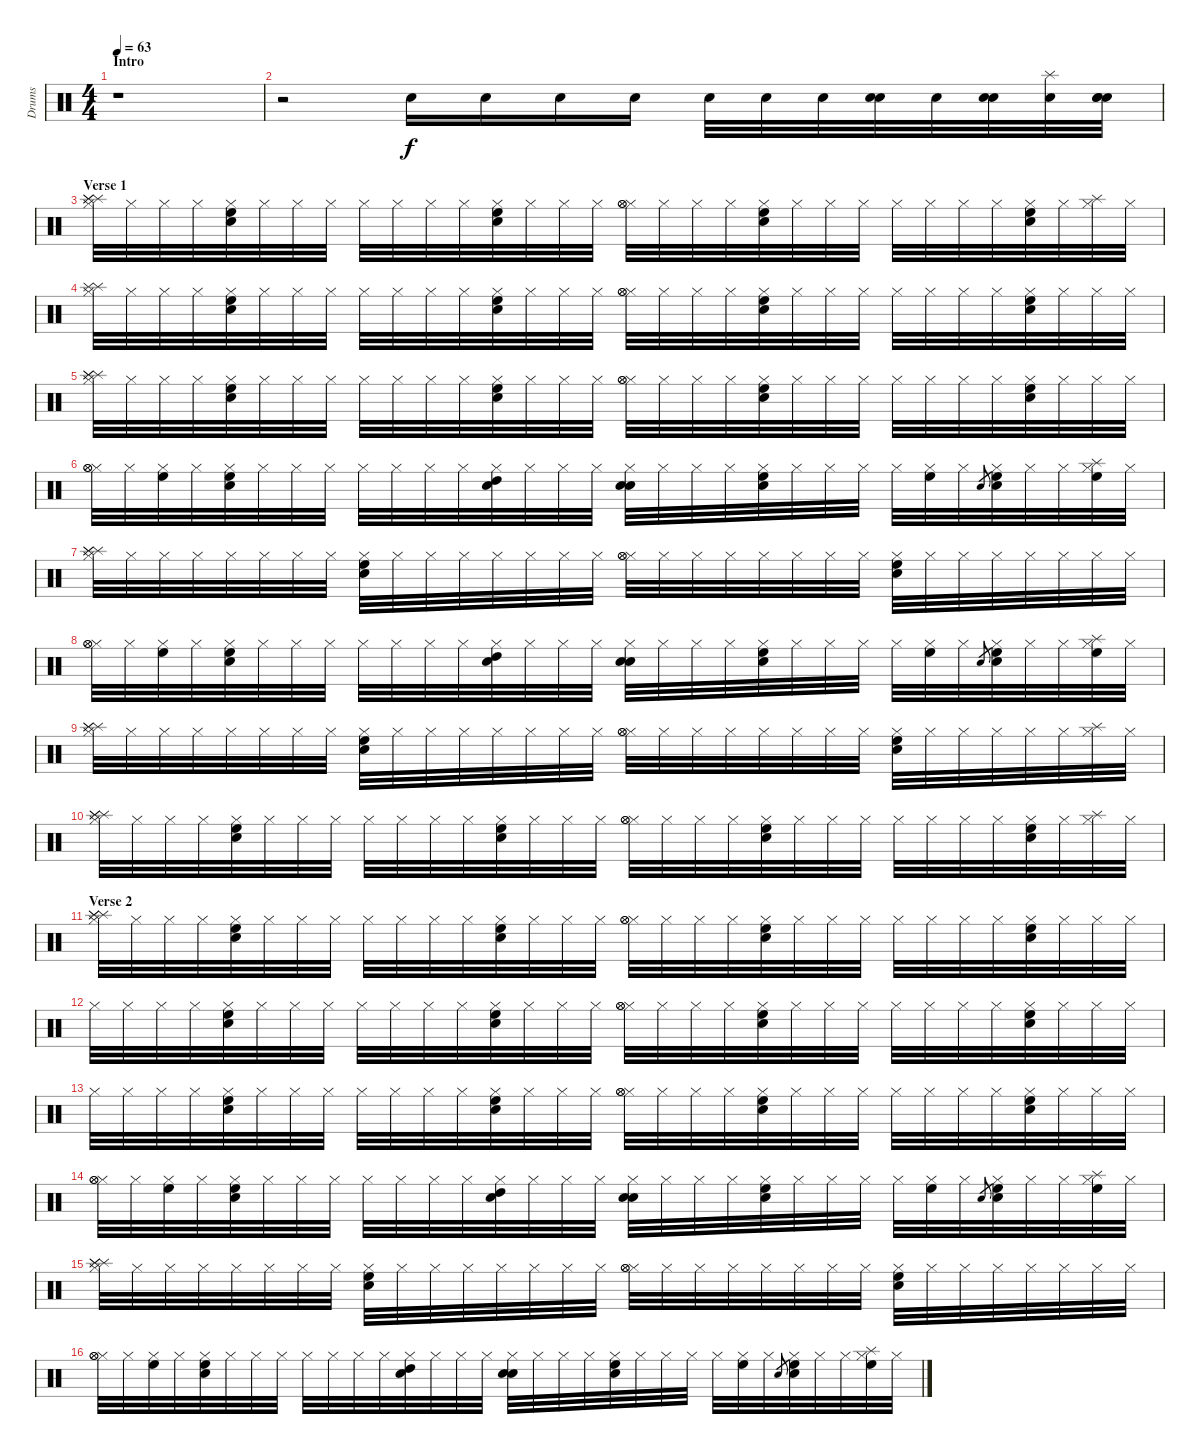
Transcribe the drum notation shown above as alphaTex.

\track ("Drums" "Drums") {instrument percussion}
\staff {score}
\articulation defaults
\ts (4 4)
\section ("" "Intro")
\tempo 63
\clef neutral
\ks c
r.1{dy f} |
r.2 "Snare (hit) 2".16 "Snare (hit) 2".16 "Snare (hit) 2".16 "Snare (hit) 2".16 "Snare (hit) 2".32 "Snare (hit) 2".32 "Snare (hit) 2".32 ("Snare (hit) 2" "Snare (hit) 2").32 "Snare (hit) 2".32 ("Snare (hit) 2" "Snare (hit) 2").32 ("Snare (hit) 2" "Splash (hit)").32 ("Snare (hit) 2" "Snare (hit) 2" "Snare (hit) 2").32 |
\section ("" "Verse 1")
("Hi-Hat (closed)" "Splash (hit)" "Splash (hit)" "Splash (hit)").32 "Hi-Hat (closed)".32 "Hi-Hat (closed)".32 "Hi-Hat (closed)".32 ("Hi-Hat (closed)" "Snare (hit) 2" "High Floor Tom (hit)").32 "Hi-Hat (closed)".32 "Hi-Hat (closed)".32 "Hi-Hat (closed)".32 "Hi-Hat (closed)".32 "Hi-Hat (closed)".32 "Hi-Hat (closed)".32 "Hi-Hat (closed)".32 ("Hi-Hat (closed)" "Snare (hit) 2" "High Floor Tom (hit)").32 "Hi-Hat (closed)".32 "Hi-Hat (closed)".32 "Hi-Hat (closed)".32 ("Hi-Hat (closed)" "Hi-Hat (open)" "Hi-Hat (open)").32 "Hi-Hat (closed)".32 "Hi-Hat (closed)".32 "Hi-Hat (closed)".32 ("Hi-Hat (closed)" "Snare (hit) 2" "High Floor Tom (hit)").32 "Hi-Hat (closed)".32 "Hi-Hat (closed)".32 "Hi-Hat (closed)".32 "Hi-Hat (closed)".32 "Hi-Hat (closed)".32 "Hi-Hat (closed)".32 "Hi-Hat (closed)".32 ("Hi-Hat (closed)" "Snare (hit) 2" "High Floor Tom (hit)").32 "Hi-Hat (closed)".32 ("Hi-Hat (closed)" "Splash (hit)").32 "Hi-Hat (closed)".32 |
("Hi-Hat (closed)" "Splash (hit)" "Splash (hit)").32 "Hi-Hat (closed)".32 "Hi-Hat (closed)".32 "Hi-Hat (closed)".32 ("Hi-Hat (closed)" "Snare (hit) 2" "High Floor Tom (hit)").32 "Hi-Hat (closed)".32 "Hi-Hat (closed)".32 "Hi-Hat (closed)".32 "Hi-Hat (closed)".32 "Hi-Hat (closed)".32 "Hi-Hat (closed)".32 "Hi-Hat (closed)".32 ("Hi-Hat (closed)" "Snare (hit) 2" "High Floor Tom (hit)").32 "Hi-Hat (closed)".32 "Hi-Hat (closed)".32 "Hi-Hat (closed)".32 ("Hi-Hat (closed)" "Hi-Hat (open)" "Hi-Hat (open)").32 "Hi-Hat (closed)".32 "Hi-Hat (closed)".32 "Hi-Hat (closed)".32 ("Hi-Hat (closed)" "Snare (hit) 2" "High Floor Tom (hit)").32 "Hi-Hat (closed)".32 "Hi-Hat (closed)".32 "Hi-Hat (closed)".32 "Hi-Hat (closed)".32 "Hi-Hat (closed)".32 "Hi-Hat (closed)".32 "Hi-Hat (closed)".32 ("Hi-Hat (closed)" "Snare (hit) 2" "High Floor Tom (hit)").32 "Hi-Hat (closed)".32 "Hi-Hat (closed)".32 "Hi-Hat (closed)".32 |
("Hi-Hat (closed)" "Splash (hit)" "Splash (hit)" "Splash (hit)").32 "Hi-Hat (closed)".32 "Hi-Hat (closed)".32 "Hi-Hat (closed)".32 ("Hi-Hat (closed)" "Snare (hit) 2" "High Floor Tom (hit)").32 "Hi-Hat (closed)".32 "Hi-Hat (closed)".32 "Hi-Hat (closed)".32 "Hi-Hat (closed)".32 "Hi-Hat (closed)".32 "Hi-Hat (closed)".32 "Hi-Hat (closed)".32 ("Hi-Hat (closed)" "Snare (hit) 2" "High Floor Tom (hit)").32 "Hi-Hat (closed)".32 "Hi-Hat (closed)".32 "Hi-Hat (closed)".32 ("Hi-Hat (closed)" "Hi-Hat (open)" "Hi-Hat (open)").32 "Hi-Hat (closed)".32 "Hi-Hat (closed)".32 "Hi-Hat (closed)".32 ("Hi-Hat (closed)" "Snare (hit) 2" "High Floor Tom (hit)").32 "Hi-Hat (closed)".32 "Hi-Hat (closed)".32 "Hi-Hat (closed)".32 "Hi-Hat (closed)".32 "Hi-Hat (closed)".32 "Hi-Hat (closed)".32 "Hi-Hat (closed)".32 ("Hi-Hat (closed)" "Snare (hit) 2" "High Floor Tom (hit)").32 "Hi-Hat (closed)".32 "Hi-Hat (closed)".32 "Hi-Hat (closed)".32 |
("Hi-Hat (closed)" "Hi-Hat (open)" "Hi-Hat (open)").32 "Hi-Hat (closed)".32 ("Hi-Hat (closed)" "High Floor Tom (hit)").32 "Hi-Hat (closed)".32 ("Hi-Hat (closed)" "Snare (hit) 2" "High Floor Tom (hit)").32 "Hi-Hat (closed)".32 "Hi-Hat (closed)".32 "Hi-Hat (closed)".32 "Hi-Hat (closed)".32 "Hi-Hat (closed)".32 "Hi-Hat (closed)".32 "Hi-Hat (closed)".32 ("Hi-Hat (closed)" "Snare (hit) 2" "High Tom (hit)").32 "Hi-Hat (closed)".32 "Hi-Hat (closed)".32 "Hi-Hat (closed)".32 ("Hi-Hat (closed)" "Snare (hit) 2" "Snare (hit) 2").32 "Hi-Hat (closed)".32 "Hi-Hat (closed)".32 "Hi-Hat (closed)".32 ("Hi-Hat (closed)" "Snare (hit) 2" "High Floor Tom (hit)").32 "Hi-Hat (closed)".32 "Hi-Hat (closed)".32 "Hi-Hat (closed)".32 "Hi-Hat (closed)".32 ("Hi-Hat (closed)" "High Floor Tom (hit)").32 "Hi-Hat (closed)".32 "Snare (hit) 2".8{gr} ("Hi-Hat (closed)" "Snare (hit) 2" "High Floor Tom (hit)").32 "Hi-Hat (closed)".32 "Hi-Hat (closed)".32 ("Hi-Hat (closed)" "Splash (hit)" "High Floor Tom (hit)").32 "Hi-Hat (closed)".32 |
("Hi-Hat (closed)" "Splash (hit)" "Splash (hit)" "Splash (hit)").32 "Hi-Hat (closed)".32 "Hi-Hat (closed)".32 "Hi-Hat (closed)".32 "Hi-Hat (closed)".32 "Hi-Hat (closed)".32 "Hi-Hat (closed)".32 "Hi-Hat (closed)".32 ("Hi-Hat (closed)" "Snare (hit) 2" "High Floor Tom (hit)").32 "Hi-Hat (closed)".32 "Hi-Hat (closed)".32 "Hi-Hat (closed)".32 "Hi-Hat (closed)".32 "Hi-Hat (closed)".32 "Hi-Hat (closed)".32 "Hi-Hat (closed)".32 ("Hi-Hat (closed)" "Hi-Hat (open)" "Hi-Hat (open)").32 "Hi-Hat (closed)".32 "Hi-Hat (closed)".32 "Hi-Hat (closed)".32 "Hi-Hat (closed)".32 "Hi-Hat (closed)".32 "Hi-Hat (closed)".32 "Hi-Hat (closed)".32 ("Hi-Hat (closed)" "Snare (hit) 2" "High Floor Tom (hit)").32 "Hi-Hat (closed)".32 "Hi-Hat (closed)".32 "Hi-Hat (closed)".32 "Hi-Hat (closed)".32 "Hi-Hat (closed)".32 "Hi-Hat (closed)".32 "Hi-Hat (closed)".32 |
("Hi-Hat (closed)" "Hi-Hat (open)" "Hi-Hat (open)").32 "Hi-Hat (closed)".32 ("Hi-Hat (closed)" "High Floor Tom (hit)").32 "Hi-Hat (closed)".32 ("Hi-Hat (closed)" "Snare (hit) 2" "High Floor Tom (hit)").32 "Hi-Hat (closed)".32 "Hi-Hat (closed)".32 "Hi-Hat (closed)".32 "Hi-Hat (closed)".32 "Hi-Hat (closed)".32 "Hi-Hat (closed)".32 "Hi-Hat (closed)".32 ("Hi-Hat (closed)" "Snare (hit) 2" "High Tom (hit)").32 "Hi-Hat (closed)".32 "Hi-Hat (closed)".32 "Hi-Hat (closed)".32 ("Hi-Hat (closed)" "Snare (hit) 2" "Snare (hit) 2").32 "Hi-Hat (closed)".32 "Hi-Hat (closed)".32 "Hi-Hat (closed)".32 ("Hi-Hat (closed)" "Snare (hit) 2" "High Floor Tom (hit)").32 "Hi-Hat (closed)".32 "Hi-Hat (closed)".32 "Hi-Hat (closed)".32 "Hi-Hat (closed)".32 ("Hi-Hat (closed)" "High Floor Tom (hit)").32 "Hi-Hat (closed)".32 "Snare (hit) 2".8{gr} ("Hi-Hat (closed)" "Snare (hit) 2" "High Floor Tom (hit)").32 "Hi-Hat (closed)".32 "Hi-Hat (closed)".32 ("Hi-Hat (closed)" "Splash (hit)" "High Floor Tom (hit)").32 "Hi-Hat (closed)".32 |
("Hi-Hat (closed)" "Splash (hit)" "Splash (hit)" "Splash (hit)").32 "Hi-Hat (closed)".32 "Hi-Hat (closed)".32 "Hi-Hat (closed)".32 "Hi-Hat (closed)".32 "Hi-Hat (closed)".32 "Hi-Hat (closed)".32 "Hi-Hat (closed)".32 ("Hi-Hat (closed)" "Snare (hit) 2" "High Floor Tom (hit)").32 "Hi-Hat (closed)".32 "Hi-Hat (closed)".32 "Hi-Hat (closed)".32 "Hi-Hat (closed)".32 "Hi-Hat (closed)".32 "Hi-Hat (closed)".32 "Hi-Hat (closed)".32 ("Hi-Hat (closed)" "Hi-Hat (open)" "Hi-Hat (open)").32 "Hi-Hat (closed)".32 "Hi-Hat (closed)".32 "Hi-Hat (closed)".32 "Hi-Hat (closed)".32 "Hi-Hat (closed)".32 "Hi-Hat (closed)".32 "Hi-Hat (closed)".32 ("Hi-Hat (closed)" "Snare (hit) 2" "High Floor Tom (hit)").32 "Hi-Hat (closed)".32 "Hi-Hat (closed)".32 "Hi-Hat (closed)".32 "Hi-Hat (closed)".32 "Hi-Hat (closed)".32 ("Hi-Hat (closed)" "Splash (hit)").32 "Hi-Hat (closed)".32 |
("Hi-Hat (closed)" "Splash (hit)" "Splash (hit)" "Splash (hit)").32 "Hi-Hat (closed)".32 "Hi-Hat (closed)".32 "Hi-Hat (closed)".32 ("Hi-Hat (closed)" "Snare (hit) 2" "High Floor Tom (hit)").32 "Hi-Hat (closed)".32 "Hi-Hat (closed)".32 "Hi-Hat (closed)".32 "Hi-Hat (closed)".32 "Hi-Hat (closed)".32 "Hi-Hat (closed)".32 "Hi-Hat (closed)".32 ("Hi-Hat (closed)" "Snare (hit) 2" "High Floor Tom (hit)").32 "Hi-Hat (closed)".32 "Hi-Hat (closed)".32 "Hi-Hat (closed)".32 ("Hi-Hat (closed)" "Hi-Hat (open)" "Hi-Hat (open)").32 "Hi-Hat (closed)".32 "Hi-Hat (closed)".32 "Hi-Hat (closed)".32 ("Hi-Hat (closed)" "Snare (hit) 2" "High Floor Tom (hit)").32 "Hi-Hat (closed)".32 "Hi-Hat (closed)".32 "Hi-Hat (closed)".32 "Hi-Hat (closed)".32 "Hi-Hat (closed)".32 "Hi-Hat (closed)".32 "Hi-Hat (closed)".32 ("Hi-Hat (closed)" "Snare (hit) 2" "High Floor Tom (hit)").32 "Hi-Hat (closed)".32 ("Hi-Hat (closed)" "Splash (hit)").32 "Hi-Hat (closed)".32 |
\section ("" "Verse 2")
("Hi-Hat (closed)" "Splash (hit)" "Splash (hit)" "Splash (hit)").32 "Hi-Hat (closed)".32 "Hi-Hat (closed)".32 "Hi-Hat (closed)".32 ("Hi-Hat (closed)" "Snare (hit) 2" "High Floor Tom (hit)").32 "Hi-Hat (closed)".32 "Hi-Hat (closed)".32 "Hi-Hat (closed)".32 "Hi-Hat (closed)".32 "Hi-Hat (closed)".32 "Hi-Hat (closed)".32 "Hi-Hat (closed)".32 ("Hi-Hat (closed)" "Snare (hit) 2" "High Floor Tom (hit)").32 "Hi-Hat (closed)".32 "Hi-Hat (closed)".32 "Hi-Hat (closed)".32 ("Hi-Hat (closed)" "Hi-Hat (open)" "Hi-Hat (open)").32 "Hi-Hat (closed)".32 "Hi-Hat (closed)".32 "Hi-Hat (closed)".32 ("Hi-Hat (closed)" "Snare (hit) 2" "High Floor Tom (hit)").32 "Hi-Hat (closed)".32 "Hi-Hat (closed)".32 "Hi-Hat (closed)".32 "Hi-Hat (closed)".32 "Hi-Hat (closed)".32 "Hi-Hat (closed)".32 "Hi-Hat (closed)".32 ("Hi-Hat (closed)" "Snare (hit) 2" "High Floor Tom (hit)").32 "Hi-Hat (closed)".32 "Hi-Hat (closed)".32 "Hi-Hat (closed)".32 |
"Hi-Hat (closed)".32 "Hi-Hat (closed)".32 "Hi-Hat (closed)".32 "Hi-Hat (closed)".32 ("Hi-Hat (closed)" "Snare (hit) 2" "High Floor Tom (hit)").32 "Hi-Hat (closed)".32 "Hi-Hat (closed)".32 "Hi-Hat (closed)".32 "Hi-Hat (closed)".32 "Hi-Hat (closed)".32 "Hi-Hat (closed)".32 "Hi-Hat (closed)".32 ("Hi-Hat (closed)" "Snare (hit) 2" "High Floor Tom (hit)").32 "Hi-Hat (closed)".32 "Hi-Hat (closed)".32 "Hi-Hat (closed)".32 ("Hi-Hat (closed)" "Hi-Hat (open)" "Hi-Hat (open)").32 "Hi-Hat (closed)".32 "Hi-Hat (closed)".32 "Hi-Hat (closed)".32 ("Hi-Hat (closed)" "Snare (hit) 2" "High Floor Tom (hit)").32 "Hi-Hat (closed)".32 "Hi-Hat (closed)".32 "Hi-Hat (closed)".32 "Hi-Hat (closed)".32 "Hi-Hat (closed)".32 "Hi-Hat (closed)".32 "Hi-Hat (closed)".32 ("Hi-Hat (closed)" "Snare (hit) 2" "High Floor Tom (hit)").32 "Hi-Hat (closed)".32 "Hi-Hat (closed)".32 "Hi-Hat (closed)".32 |
"Hi-Hat (closed)".32 "Hi-Hat (closed)".32 "Hi-Hat (closed)".32 "Hi-Hat (closed)".32 ("Hi-Hat (closed)" "Snare (hit) 2" "High Floor Tom (hit)").32 "Hi-Hat (closed)".32 "Hi-Hat (closed)".32 "Hi-Hat (closed)".32 "Hi-Hat (closed)".32 "Hi-Hat (closed)".32 "Hi-Hat (closed)".32 "Hi-Hat (closed)".32 ("Hi-Hat (closed)" "Snare (hit) 2" "High Floor Tom (hit)").32 "Hi-Hat (closed)".32 "Hi-Hat (closed)".32 "Hi-Hat (closed)".32 ("Hi-Hat (closed)" "Hi-Hat (open)" "Hi-Hat (open)").32 "Hi-Hat (closed)".32 "Hi-Hat (closed)".32 "Hi-Hat (closed)".32 ("Hi-Hat (closed)" "Snare (hit) 2" "High Floor Tom (hit)").32 "Hi-Hat (closed)".32 "Hi-Hat (closed)".32 "Hi-Hat (closed)".32 "Hi-Hat (closed)".32 "Hi-Hat (closed)".32 "Hi-Hat (closed)".32 "Hi-Hat (closed)".32 ("Hi-Hat (closed)" "Snare (hit) 2" "High Floor Tom (hit)").32 "Hi-Hat (closed)".32 "Hi-Hat (closed)".32 "Hi-Hat (closed)".32 |
("Hi-Hat (closed)" "Hi-Hat (open)" "Hi-Hat (open)").32 "Hi-Hat (closed)".32 ("Hi-Hat (closed)" "High Floor Tom (hit)").32 "Hi-Hat (closed)".32 ("Hi-Hat (closed)" "Snare (hit) 2" "High Floor Tom (hit)").32 "Hi-Hat (closed)".32 "Hi-Hat (closed)".32 "Hi-Hat (closed)".32 "Hi-Hat (closed)".32 "Hi-Hat (closed)".32 "Hi-Hat (closed)".32 "Hi-Hat (closed)".32 ("Hi-Hat (closed)" "Snare (hit) 2" "High Tom (hit)").32 "Hi-Hat (closed)".32 "Hi-Hat (closed)".32 "Hi-Hat (closed)".32 ("Hi-Hat (closed)" "Snare (hit) 2" "Snare (hit) 2").32 "Hi-Hat (closed)".32 "Hi-Hat (closed)".32 "Hi-Hat (closed)".32 ("Hi-Hat (closed)" "Snare (hit) 2" "High Floor Tom (hit)").32 "Hi-Hat (closed)".32 "Hi-Hat (closed)".32 "Hi-Hat (closed)".32 "Hi-Hat (closed)".32 ("Hi-Hat (closed)" "High Floor Tom (hit)").32 "Hi-Hat (closed)".32 "Snare (hit) 2".8{gr} ("Hi-Hat (closed)" "Snare (hit) 2" "High Floor Tom (hit)").32 "Hi-Hat (closed)".32 "Hi-Hat (closed)".32 ("Hi-Hat (closed)" "Splash (hit)" "High Floor Tom (hit)").32 "Hi-Hat (closed)".32 |
("Hi-Hat (closed)" "Splash (hit)" "Splash (hit)" "Splash (hit)").32 "Hi-Hat (closed)".32 "Hi-Hat (closed)".32 "Hi-Hat (closed)".32 "Hi-Hat (closed)".32 "Hi-Hat (closed)".32 "Hi-Hat (closed)".32 "Hi-Hat (closed)".32 ("Hi-Hat (closed)" "Snare (hit) 2" "High Floor Tom (hit)").32 "Hi-Hat (closed)".32 "Hi-Hat (closed)".32 "Hi-Hat (closed)".32 "Hi-Hat (closed)".32 "Hi-Hat (closed)".32 "Hi-Hat (closed)".32 "Hi-Hat (closed)".32 ("Hi-Hat (closed)" "Hi-Hat (open)" "Hi-Hat (open)").32 "Hi-Hat (closed)".32 "Hi-Hat (closed)".32 "Hi-Hat (closed)".32 "Hi-Hat (closed)".32 "Hi-Hat (closed)".32 "Hi-Hat (closed)".32 "Hi-Hat (closed)".32 ("Hi-Hat (closed)" "Snare (hit) 2" "High Floor Tom (hit)").32 "Hi-Hat (closed)".32 "Hi-Hat (closed)".32 "Hi-Hat (closed)".32 "Hi-Hat (closed)".32 "Hi-Hat (closed)".32 "Hi-Hat (closed)".32 "Hi-Hat (closed)".32 |
("Hi-Hat (closed)" "Hi-Hat (open)" "Hi-Hat (open)").32 "Hi-Hat (closed)".32 ("Hi-Hat (closed)" "High Floor Tom (hit)").32 "Hi-Hat (closed)".32 ("Hi-Hat (closed)" "Snare (hit) 2" "High Floor Tom (hit)").32 "Hi-Hat (closed)".32 "Hi-Hat (closed)".32 "Hi-Hat (closed)".32 "Hi-Hat (closed)".32 "Hi-Hat (closed)".32 "Hi-Hat (closed)".32 "Hi-Hat (closed)".32 ("Hi-Hat (closed)" "Snare (hit) 2" "High Tom (hit)").32 "Hi-Hat (closed)".32 "Hi-Hat (closed)".32 "Hi-Hat (closed)".32 ("Hi-Hat (closed)" "Snare (hit) 2" "Snare (hit) 2").32 "Hi-Hat (closed)".32 "Hi-Hat (closed)".32 "Hi-Hat (closed)".32 ("Hi-Hat (closed)" "Snare (hit) 2" "High Floor Tom (hit)").32 "Hi-Hat (closed)".32 "Hi-Hat (closed)".32 "Hi-Hat (closed)".32 "Hi-Hat (closed)".32 ("Hi-Hat (closed)" "High Floor Tom (hit)").32 "Hi-Hat (closed)".32 "Snare (hit) 2".8{gr} ("Hi-Hat (closed)" "Snare (hit) 2" "High Floor Tom (hit)").32 "Hi-Hat (closed)".32 "Hi-Hat (closed)".32 ("Hi-Hat (closed)" "Splash (hit)" "High Floor Tom (hit)").32 "Hi-Hat (closed)".32
